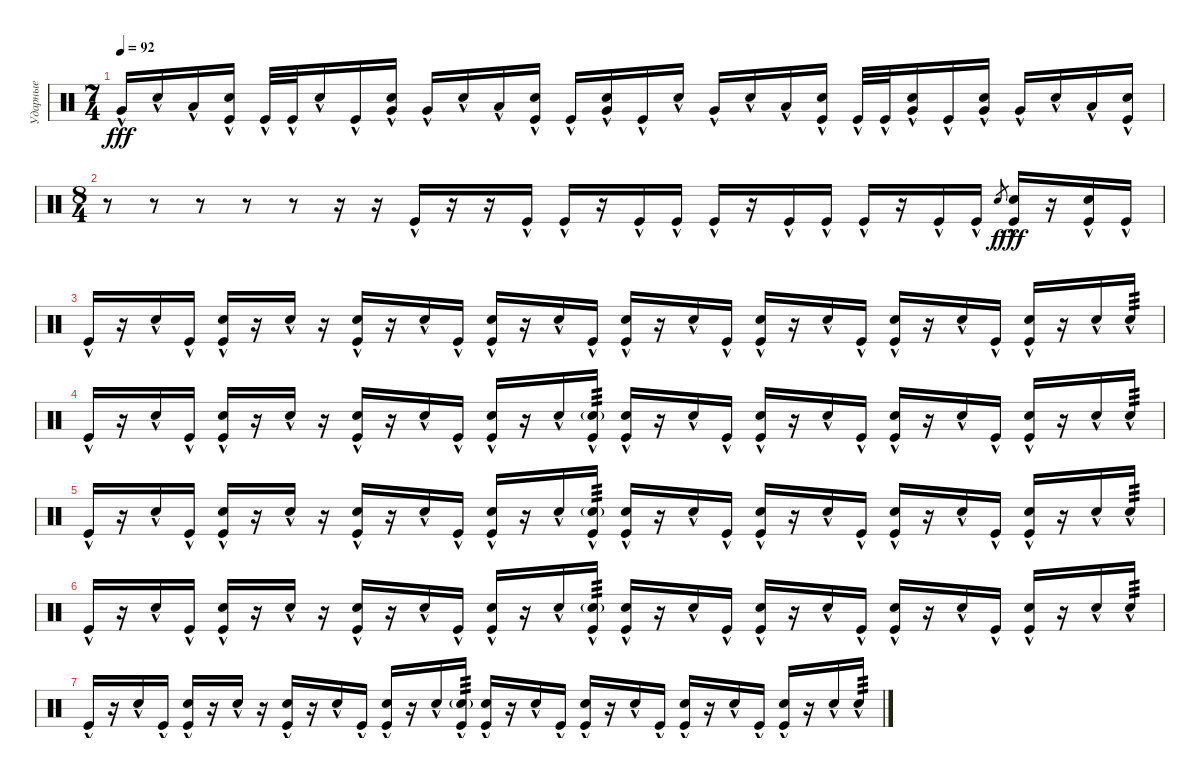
\track ("Ударные" "Ударные") {instrument percussion}
\staff {score}
\articulation defaults
\ts (7 4)
\tempo 92
\clef neutral
\ks c "Very Low Tom (hit)"{hac}.16{dy fff} "Electric Snare (hit)"{hac}.16 "Low Floor Tom (hit)"{hac}.16
("Electric Snare (hit)"{hac} "Kick (hit)"{hac}).16 "Kick (hit)"{hac}.32 "Kick (hit)"{hac}.32 "Electric Snare (hit)"{hac}.16 "Kick (hit)"{hac}.16 ("Electric Snare (hit)"{hac} "Very Low Tom (hit)"{hac}).16 "Very Low Tom (hit)"{hac}.16 "Electric Snare (hit)"{hac}.16 "Low Floor Tom (hit)"{hac}.16 ("Electric Snare (hit)"{hac} "Kick (hit)"{hac}).16 "Kick (hit)"{hac}.16 ("Electric Snare (hit)"{hac} "Very Low Tom (hit)"{hac}).16 "Kick (hit)"{hac}.16 "Electric Snare (hit)"{hac}.16 "Very Low Tom (hit)"{hac}.16 "Electric Snare (hit)"{hac}.16 "Low Floor Tom (hit)"{hac}.16 ("Electric Snare (hit)"{hac} "Kick (hit)"{hac}).16 "Kick (hit)"{hac}.32 "Kick (hit)"{hac}.32 ("Electric Snare (hit)"{hac} "Very Low Tom (hit)"{hac}).16 "Kick (hit)"{hac}.16 ("Electric Snare (hit)"{hac} "Very Low Tom (hit)"{hac}).16 "Very Low Tom (hit)"{hac}.16 "Electric Snare (hit)"{hac}.16 "Low Floor Tom (hit)"{hac}.16 ("Electric Snare (hit)"{hac} "Kick (hit)"{hac}).16 |
\ts (8 4)
r.8 r.8 r.8 r.8 r.8 r.16 r.16 "Kick (hit)"{hac}.16 r.16 r.16 "Kick (hit)"{hac}.16 "Kick (hit)"{hac}.16 r.16 "Kick (hit)"{hac}.16 "Kick (hit)"{hac}.16 "Kick (hit)"{hac}.16 r.16 "Kick (hit)"{hac}.16 "Kick (hit)"{hac}.16 "Kick (hit)"{hac}.16 r.16 "Kick (hit)"{hac}.16 "Kick (hit)"{hac}.16 "Electric Snare (hit)".8{gr dy f} ("Electric Snare (hit)"{hac} "Kick (hit)"{hac}).16{dy fff} r.16 ("Electric Snare (hit)"{hac} "Kick (hit)"{hac}).16 "Kick (hit)"{hac}.16 |
"Kick (hit)"{hac}.16 r.16 "Electric Snare (hit)"{hac}.16 "Kick (hit)"{hac}.16 ("Electric Snare (hit)"{hac} "Kick (hit)"{hac}).16 r.16 "Electric Snare (hit)"{hac}.16 r.16 ("Electric Snare (hit)"{hac} "Kick (hit)"{hac}).16 r.16 "Electric Snare (hit)"{hac}.16 "Kick (hit)"{hac}.16 ("Electric Snare (hit)"{hac} "Kick (hit)"{hac}).16 r.16 "Electric Snare (hit)"{hac}.16 "Kick (hit)"{hac}.16 ("Electric Snare (hit)"{hac} "Kick (hit)"{hac}).16 r.16 "Electric Snare (hit)"{hac}.16 "Kick (hit)"{hac}.16 ("Electric Snare (hit)"{hac} "Kick (hit)"{hac}).16 r.16 "Electric Snare (hit)"{hac}.16 "Kick (hit)"{hac}.16 ("Electric Snare (hit)"{hac} "Kick (hit)"{hac}).16 r.16 "Electric Snare (hit)"{hac}.16 "Kick (hit)"{hac}.16 ("Electric Snare (hit)"{hac} "Kick (hit)"{hac}).16 r.16 "Electric Snare (hit)"{hac}.16 "Electric Snare (hit)"{hac}.16{tp 3} |
"Kick (hit)"{hac}.16 r.16 "Electric Snare (hit)"{hac}.16 "Kick (hit)"{hac}.16 ("Electric Snare (hit)"{hac} "Kick (hit)"{hac}).16 r.16 "Electric Snare (hit)"{hac}.16 r.16 ("Electric Snare (hit)"{hac} "Kick (hit)"{hac}).16 r.16 "Electric Snare (hit)"{hac}.16 "Kick (hit)"{hac}.16 ("Electric Snare (hit)"{hac} "Kick (hit)"{hac}).16 r.16 "Electric Snare (hit)"{hac}.16 ("Electric Snare (hit)"{g} "Kick (hit)"{hac}).16{tp 3} ("Electric Snare (hit)"{hac} "Kick (hit)"{hac}).16 r.16 "Electric Snare (hit)"{hac}.16 "Kick (hit)"{hac}.16 ("Electric Snare (hit)"{hac} "Kick (hit)"{hac}).16 r.16 "Electric Snare (hit)"{hac}.16 "Kick (hit)"{hac}.16 ("Electric Snare (hit)"{hac} "Kick (hit)"{hac}).16 r.16 "Electric Snare (hit)"{hac}.16 "Kick (hit)"{hac}.16 ("Electric Snare (hit)"{hac} "Kick (hit)"{hac}).16 r.16 "Electric Snare (hit)"{hac}.16 "Electric Snare (hit)"{hac}.16{tp 3} |
"Kick (hit)"{hac}.16 r.16 "Electric Snare (hit)"{hac}.16 "Kick (hit)"{hac}.16 ("Electric Snare (hit)"{hac} "Kick (hit)"{hac}).16 r.16 "Electric Snare (hit)"{hac}.16 r.16 ("Electric Snare (hit)"{hac} "Kick (hit)"{hac}).16 r.16 "Electric Snare (hit)"{hac}.16 "Kick (hit)"{hac}.16 ("Electric Snare (hit)"{hac} "Kick (hit)"{hac}).16 r.16 "Electric Snare (hit)"{hac}.16 ("Electric Snare (hit)"{g} "Kick (hit)"{hac}).16{tp 3} ("Electric Snare (hit)"{hac} "Kick (hit)"{hac}).16 r.16 "Electric Snare (hit)"{hac}.16 "Kick (hit)"{hac}.16 ("Electric Snare (hit)"{hac} "Kick (hit)"{hac}).16 r.16 "Electric Snare (hit)"{hac}.16 "Kick (hit)"{hac}.16 ("Electric Snare (hit)"{hac} "Kick (hit)"{hac}).16 r.16 "Electric Snare (hit)"{hac}.16 "Kick (hit)"{hac}.16 ("Electric Snare (hit)"{hac} "Kick (hit)"{hac}).16 r.16 "Electric Snare (hit)"{hac}.16 "Electric Snare (hit)"{hac}.16{tp 3} |
"Kick (hit)"{hac}.16 r.16 "Electric Snare (hit)"{hac}.16 "Kick (hit)"{hac}.16 ("Electric Snare (hit)"{hac} "Kick (hit)"{hac}).16 r.16 "Electric Snare (hit)"{hac}.16 r.16 ("Electric Snare (hit)"{hac} "Kick (hit)"{hac}).16 r.16 "Electric Snare (hit)"{hac}.16 "Kick (hit)"{hac}.16 ("Electric Snare (hit)"{hac} "Kick (hit)"{hac}).16 r.16 "Electric Snare (hit)"{hac}.16 ("Electric Snare (hit)"{g} "Kick (hit)"{hac}).16{tp 3} ("Electric Snare (hit)"{hac} "Kick (hit)"{hac}).16 r.16 "Electric Snare (hit)"{hac}.16 "Kick (hit)"{hac}.16 ("Electric Snare (hit)"{hac} "Kick (hit)"{hac}).16 r.16 "Electric Snare (hit)"{hac}.16 "Kick (hit)"{hac}.16 ("Electric Snare (hit)"{hac} "Kick (hit)"{hac}).16 r.16 "Electric Snare (hit)"{hac}.16 "Kick (hit)"{hac}.16 ("Electric Snare (hit)"{hac} "Kick (hit)"{hac}).16 r.16 "Electric Snare (hit)"{hac}.16 "Electric Snare (hit)"{hac}.16{tp 3} |
"Kick (hit)"{hac}.16 r.16 "Electric Snare (hit)"{hac}.16 "Kick (hit)"{hac}.16 ("Electric Snare (hit)"{hac} "Kick (hit)"{hac}).16 r.16 "Electric Snare (hit)"{hac}.16 r.16 ("Electric Snare (hit)"{hac} "Kick (hit)"{hac}).16 r.16 "Electric Snare (hit)"{hac}.16 "Kick (hit)"{hac}.16 ("Electric Snare (hit)"{hac} "Kick (hit)"{hac}).16 r.16 "Electric Snare (hit)"{hac}.16 ("Electric Snare (hit)"{g} "Kick (hit)"{hac}).16{tp 3} ("Electric Snare (hit)"{hac} "Kick (hit)"{hac}).16 r.16 "Electric Snare (hit)"{hac}.16 "Kick (hit)"{hac}.16 ("Electric Snare (hit)"{hac} "Kick (hit)"{hac}).16 r.16 "Electric Snare (hit)"{hac}.16 "Kick (hit)"{hac}.16 ("Electric Snare (hit)"{hac} "Kick (hit)"{hac}).16 r.16 "Electric Snare (hit)"{hac}.16 "Kick (hit)"{hac}.16 ("Electric Snare (hit)"{hac} "Kick (hit)"{hac}).16 r.16 "Electric Snare (hit)"{hac}.16 "Electric Snare (hit)"{hac}.16{tp 3}
